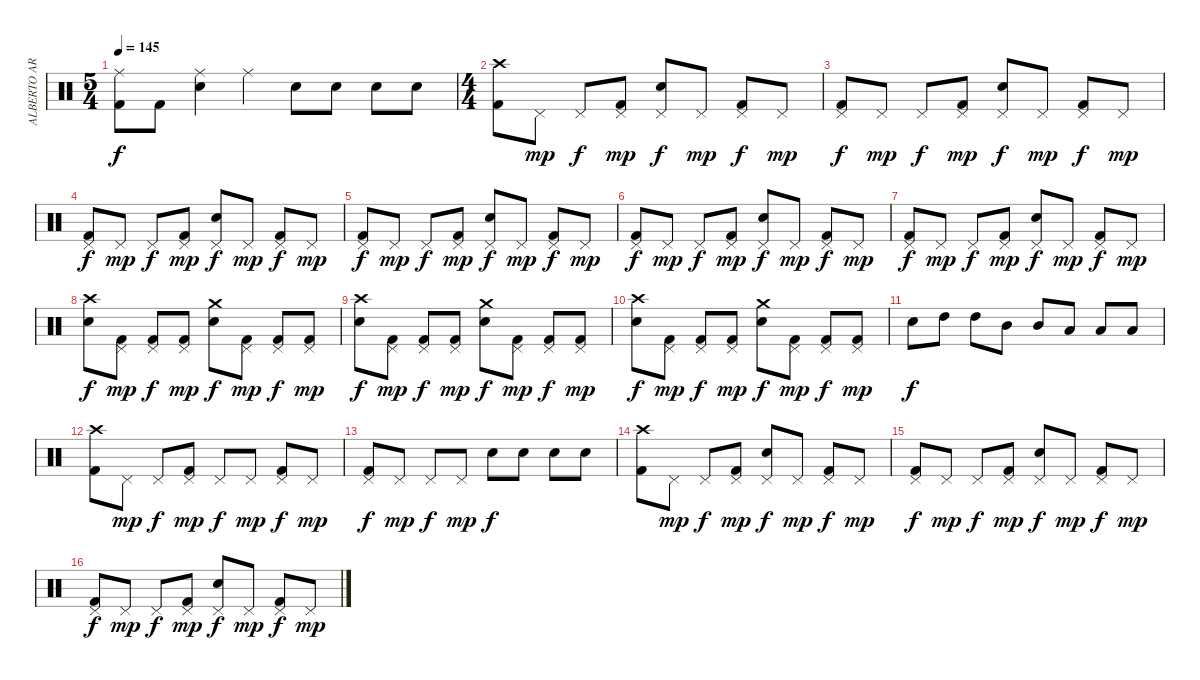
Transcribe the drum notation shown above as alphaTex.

\track ("ALBERTO ARDINES" "ALBERTO AR") {instrument percussion}
\staff {score}
\articulation defaults
\ts (5 4)
\tempo 145
\clef neutral
\ks c
("Ride (middle)" "Kick (hit) 2").8{dy f} "Kick (hit) 2".8 ("Ride (middle)" "Electric Snare (hit)").4 "Ride (middle)".4 "Electric Snare (hit)".8 "Electric Snare (hit)".8 "Electric Snare (hit)".8 "Electric Snare (hit)".8 |
\ts (4 4)
("Crash high (hit)" "Kick (hit) 2").8 "Pedal Hi-Hat (hit)".8{dy mp} "Pedal Hi-Hat (hit)".8{dy f} ("Pedal Hi-Hat (hit)" "Kick (hit) 2").8{dy mp} ("Pedal Hi-Hat (hit)" "Electric Snare (hit)").8{dy f} "Pedal Hi-Hat (hit)".8{dy mp} ("Pedal Hi-Hat (hit)" "Kick (hit) 2").8{dy f} "Pedal Hi-Hat (hit)".8{dy mp} |
("Pedal Hi-Hat (hit)" "Kick (hit) 2").8{dy f} "Pedal Hi-Hat (hit)".8{dy mp} "Pedal Hi-Hat (hit)".8{dy f} ("Pedal Hi-Hat (hit)" "Kick (hit) 2").8{dy mp} ("Pedal Hi-Hat (hit)" "Electric Snare (hit)").8{dy f} "Pedal Hi-Hat (hit)".8{dy mp} ("Pedal Hi-Hat (hit)" "Kick (hit) 2").8{dy f} "Pedal Hi-Hat (hit)".8{dy mp} |
("Pedal Hi-Hat (hit)" "Kick (hit) 2").8{dy f} "Pedal Hi-Hat (hit)".8{dy mp} "Pedal Hi-Hat (hit)".8{dy f} ("Pedal Hi-Hat (hit)" "Kick (hit) 2").8{dy mp} ("Pedal Hi-Hat (hit)" "Electric Snare (hit)").8{dy f} "Pedal Hi-Hat (hit)".8{dy mp} ("Pedal Hi-Hat (hit)" "Kick (hit) 2").8{dy f} "Pedal Hi-Hat (hit)".8{dy mp} |
("Pedal Hi-Hat (hit)" "Kick (hit) 2").8{dy f} "Pedal Hi-Hat (hit)".8{dy mp} "Pedal Hi-Hat (hit)".8{dy f} ("Pedal Hi-Hat (hit)" "Kick (hit) 2").8{dy mp} ("Pedal Hi-Hat (hit)" "Electric Snare (hit)").8{dy f} "Pedal Hi-Hat (hit)".8{dy mp} ("Pedal Hi-Hat (hit)" "Kick (hit) 2").8{dy f} "Pedal Hi-Hat (hit)".8{dy mp} |
("Pedal Hi-Hat (hit)" "Kick (hit) 2").8{dy f} "Pedal Hi-Hat (hit)".8{dy mp} "Pedal Hi-Hat (hit)".8{dy f} ("Pedal Hi-Hat (hit)" "Kick (hit) 2").8{dy mp} ("Pedal Hi-Hat (hit)" "Electric Snare (hit)").8{dy f} "Pedal Hi-Hat (hit)".8{dy mp} ("Pedal Hi-Hat (hit)" "Kick (hit) 2").8{dy f} "Pedal Hi-Hat (hit)".8{dy mp} |
("Pedal Hi-Hat (hit)" "Kick (hit) 2").8{dy f} "Pedal Hi-Hat (hit)".8{dy mp} "Pedal Hi-Hat (hit)".8{dy f} ("Pedal Hi-Hat (hit)" "Kick (hit) 2").8{dy mp} ("Pedal Hi-Hat (hit)" "Electric Snare (hit)").8{dy f} "Pedal Hi-Hat (hit)".8{dy mp} ("Pedal Hi-Hat (hit)" "Kick (hit) 2").8{dy f} "Pedal Hi-Hat (hit)".8{dy mp} |
("Crash high (hit)" "Electric Snare (hit)").8{dy f} ("Pedal Hi-Hat (hit)" "Kick (hit) 2").8{dy mp} ("Pedal Hi-Hat (hit)" "Kick (hit) 2").8{dy f} ("Pedal Hi-Hat (hit)" "Kick (hit) 2").8{dy mp} ("Crash medium (hit)" "Electric Snare (hit)").8{dy f} ("Pedal Hi-Hat (hit)" "Kick (hit) 2").8{dy mp} ("Pedal Hi-Hat (hit)" "Kick (hit) 2").8{dy f} ("Pedal Hi-Hat (hit)" "Kick (hit) 2").8{dy mp} |
("Crash high (hit)" "Electric Snare (hit)").8{dy f} ("Pedal Hi-Hat (hit)" "Kick (hit) 2").8{dy mp} ("Pedal Hi-Hat (hit)" "Kick (hit) 2").8{dy f} ("Pedal Hi-Hat (hit)" "Kick (hit) 2").8{dy mp} ("Crash medium (hit)" "Electric Snare (hit)").8{dy f} ("Pedal Hi-Hat (hit)" "Kick (hit) 2").8{dy mp} ("Pedal Hi-Hat (hit)" "Kick (hit) 2").8{dy f} ("Pedal Hi-Hat (hit)" "Kick (hit) 2").8{dy mp} |
("Crash high (hit)" "Electric Snare (hit)").8{dy f} ("Pedal Hi-Hat (hit)" "Kick (hit) 2").8{dy mp} ("Pedal Hi-Hat (hit)" "Kick (hit) 2").8{dy f} ("Pedal Hi-Hat (hit)" "Kick (hit) 2").8{dy mp} ("Crash medium (hit)" "Electric Snare (hit)").8{dy f} ("Pedal Hi-Hat (hit)" "Kick (hit) 2").8{dy mp} ("Pedal Hi-Hat (hit)" "Kick (hit) 2").8{dy f} ("Pedal Hi-Hat (hit)" "Kick (hit) 2").8{dy mp} |
"Electric Snare (hit)".8{dy f} "High Tom (hit)".8 "High Tom (hit)".8 "Mid Tom (hit)".8 "Mid Tom (hit)".8 "Low Tom (hit)".8 "Low Tom (hit)".8 "Low Tom (hit)".8 |
("Crash high (hit)" "Kick (hit) 2").8 "Pedal Hi-Hat (hit)".8{dy mp} "Pedal Hi-Hat (hit)".8{dy f} ("Pedal Hi-Hat (hit)" "Kick (hit) 2").8{dy mp} "Pedal Hi-Hat (hit)".8{dy f} "Pedal Hi-Hat (hit)".8{dy mp} ("Pedal Hi-Hat (hit)" "Kick (hit) 2").8{dy f} "Pedal Hi-Hat (hit)".8{dy mp} |
("Pedal Hi-Hat (hit)" "Kick (hit) 2").8{dy f} "Pedal Hi-Hat (hit)".8{dy mp} "Pedal Hi-Hat (hit)".8{dy f} "Pedal Hi-Hat (hit)".8{dy mp} "Electric Snare (hit)".8{dy f} "Electric Snare (hit)".8 "Electric Snare (hit)".8 "Electric Snare (hit)".8 |
("Crash high (hit)" "Kick (hit) 2").8 "Pedal Hi-Hat (hit)".8{dy mp} "Pedal Hi-Hat (hit)".8{dy f} ("Pedal Hi-Hat (hit)" "Kick (hit) 2").8{dy mp} ("Pedal Hi-Hat (hit)" "Electric Snare (hit)").8{dy f} "Pedal Hi-Hat (hit)".8{dy mp} ("Pedal Hi-Hat (hit)" "Kick (hit) 2").8{dy f} "Pedal Hi-Hat (hit)".8{dy mp} |
("Pedal Hi-Hat (hit)" "Kick (hit) 2").8{dy f} "Pedal Hi-Hat (hit)".8{dy mp} "Pedal Hi-Hat (hit)".8{dy f} ("Pedal Hi-Hat (hit)" "Kick (hit) 2").8{dy mp} ("Pedal Hi-Hat (hit)" "Electric Snare (hit)").8{dy f} "Pedal Hi-Hat (hit)".8{dy mp} ("Pedal Hi-Hat (hit)" "Kick (hit) 2").8{dy f} "Pedal Hi-Hat (hit)".8{dy mp} |
("Pedal Hi-Hat (hit)" "Kick (hit) 2").8{dy f} "Pedal Hi-Hat (hit)".8{dy mp} "Pedal Hi-Hat (hit)".8{dy f} ("Pedal Hi-Hat (hit)" "Kick (hit) 2").8{dy mp} ("Pedal Hi-Hat (hit)" "Electric Snare (hit)").8{dy f} "Pedal Hi-Hat (hit)".8{dy mp} ("Pedal Hi-Hat (hit)" "Kick (hit) 2").8{dy f} "Pedal Hi-Hat (hit)".8{dy mp}
